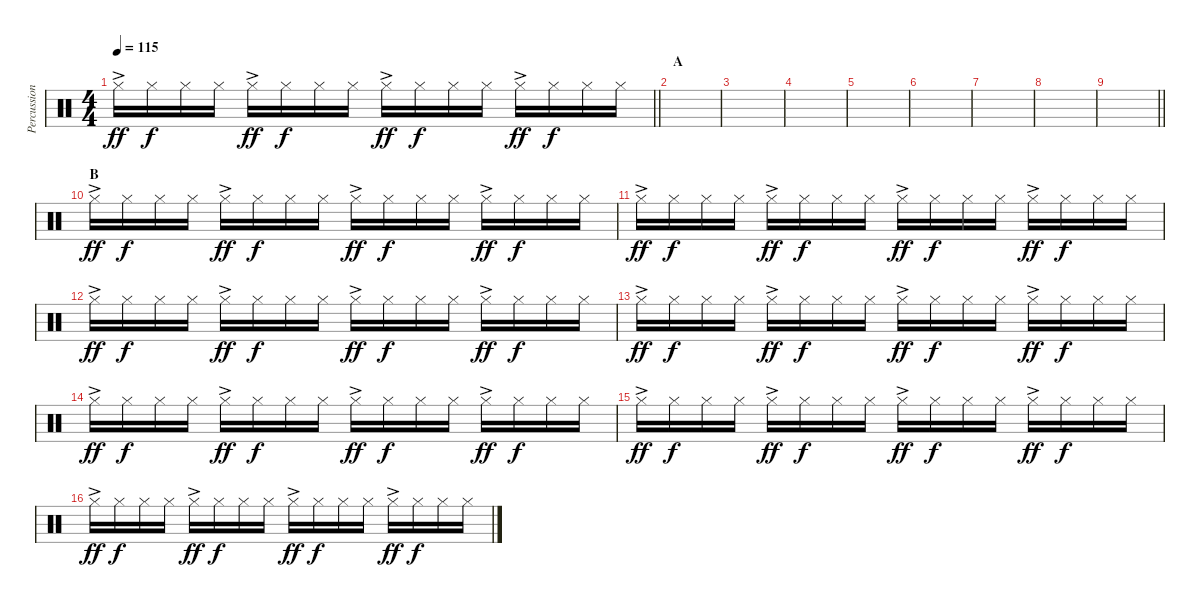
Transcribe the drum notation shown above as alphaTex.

\track ("Percussion" "Percussion") {instrument percussion}
\staff {score}
\articulation defaults
\ts (4 4)
\tempo 115
\clef neutral
\barLineRight lightlight
\ks c "Hi-Hat (closed)"{ac}.16{dy ff} "Hi-Hat (closed)".16{dy f} "Hi-Hat (closed)".16 "Hi-Hat (closed)".16 "Hi-Hat (closed)"{ac}.16{dy ff} "Hi-Hat (closed)".16{dy f} "Hi-Hat (closed)".16 "Hi-Hat (closed)".16 "Hi-Hat (closed)"{ac}.16{dy ff} "Hi-Hat (closed)".16{dy f} "Hi-Hat (closed)".16 "Hi-Hat (closed)".16 "Hi-Hat (closed)"{ac}.16{dy ff} "Hi-Hat (closed)".16{dy f} "Hi-Hat (closed)".16 "Hi-Hat (closed)".16
|
\section ("" "A")
|
|
|
|
|
|
|
\barLineRight lightlight
|
\section ("" "B")
"Hi-Hat (closed)"{ac}.16{dy ff} "Hi-Hat (closed)".16{dy f} "Hi-Hat (closed)".16 "Hi-Hat (closed)".16 "Hi-Hat (closed)"{ac}.16{dy ff} "Hi-Hat (closed)".16{dy f} "Hi-Hat (closed)".16 "Hi-Hat (closed)".16 "Hi-Hat (closed)"{ac}.16{dy ff} "Hi-Hat (closed)".16{dy f} "Hi-Hat (closed)".16 "Hi-Hat (closed)".16 "Hi-Hat (closed)"{ac}.16{dy ff} "Hi-Hat (closed)".16{dy f} "Hi-Hat (closed)".16 "Hi-Hat (closed)".16 |
"Hi-Hat (closed)"{ac}.16{dy ff} "Hi-Hat (closed)".16{dy f} "Hi-Hat (closed)".16 "Hi-Hat (closed)".16 "Hi-Hat (closed)"{ac}.16{dy ff} "Hi-Hat (closed)".16{dy f} "Hi-Hat (closed)".16 "Hi-Hat (closed)".16 "Hi-Hat (closed)"{ac}.16{dy ff} "Hi-Hat (closed)".16{dy f} "Hi-Hat (closed)".16 "Hi-Hat (closed)".16 "Hi-Hat (closed)"{ac}.16{dy ff} "Hi-Hat (closed)".16{dy f} "Hi-Hat (closed)".16 "Hi-Hat (closed)".16 |
"Hi-Hat (closed)"{ac}.16{dy ff} "Hi-Hat (closed)".16{dy f} "Hi-Hat (closed)".16 "Hi-Hat (closed)".16 "Hi-Hat (closed)"{ac}.16{dy ff} "Hi-Hat (closed)".16{dy f} "Hi-Hat (closed)".16 "Hi-Hat (closed)".16 "Hi-Hat (closed)"{ac}.16{dy ff} "Hi-Hat (closed)".16{dy f} "Hi-Hat (closed)".16 "Hi-Hat (closed)".16 "Hi-Hat (closed)"{ac}.16{dy ff} "Hi-Hat (closed)".16{dy f} "Hi-Hat (closed)".16 "Hi-Hat (closed)".16 |
"Hi-Hat (closed)"{ac}.16{dy ff} "Hi-Hat (closed)".16{dy f} "Hi-Hat (closed)".16 "Hi-Hat (closed)".16 "Hi-Hat (closed)"{ac}.16{dy ff} "Hi-Hat (closed)".16{dy f} "Hi-Hat (closed)".16 "Hi-Hat (closed)".16 "Hi-Hat (closed)"{ac}.16{dy ff} "Hi-Hat (closed)".16{dy f} "Hi-Hat (closed)".16 "Hi-Hat (closed)".16 "Hi-Hat (closed)"{ac}.16{dy ff} "Hi-Hat (closed)".16{dy f} "Hi-Hat (closed)".16 "Hi-Hat (closed)".16 |
"Hi-Hat (closed)"{ac}.16{dy ff} "Hi-Hat (closed)".16{dy f} "Hi-Hat (closed)".16 "Hi-Hat (closed)".16 "Hi-Hat (closed)"{ac}.16{dy ff} "Hi-Hat (closed)".16{dy f} "Hi-Hat (closed)".16 "Hi-Hat (closed)".16 "Hi-Hat (closed)"{ac}.16{dy ff} "Hi-Hat (closed)".16{dy f} "Hi-Hat (closed)".16 "Hi-Hat (closed)".16 "Hi-Hat (closed)"{ac}.16{dy ff} "Hi-Hat (closed)".16{dy f} "Hi-Hat (closed)".16 "Hi-Hat (closed)".16 |
"Hi-Hat (closed)"{ac}.16{dy ff} "Hi-Hat (closed)".16{dy f} "Hi-Hat (closed)".16 "Hi-Hat (closed)".16 "Hi-Hat (closed)"{ac}.16{dy ff} "Hi-Hat (closed)".16{dy f} "Hi-Hat (closed)".16 "Hi-Hat (closed)".16 "Hi-Hat (closed)"{ac}.16{dy ff} "Hi-Hat (closed)".16{dy f} "Hi-Hat (closed)".16 "Hi-Hat (closed)".16 "Hi-Hat (closed)"{ac}.16{dy ff} "Hi-Hat (closed)".16{dy f} "Hi-Hat (closed)".16 "Hi-Hat (closed)".16 |
"Hi-Hat (closed)"{ac}.16{dy ff} "Hi-Hat (closed)".16{dy f} "Hi-Hat (closed)".16 "Hi-Hat (closed)".16 "Hi-Hat (closed)"{ac}.16{dy ff} "Hi-Hat (closed)".16{dy f} "Hi-Hat (closed)".16 "Hi-Hat (closed)".16 "Hi-Hat (closed)"{ac}.16{dy ff} "Hi-Hat (closed)".16{dy f} "Hi-Hat (closed)".16 "Hi-Hat (closed)".16 "Hi-Hat (closed)"{ac}.16{dy ff} "Hi-Hat (closed)".16{dy f} "Hi-Hat (closed)".16 "Hi-Hat (closed)".16
